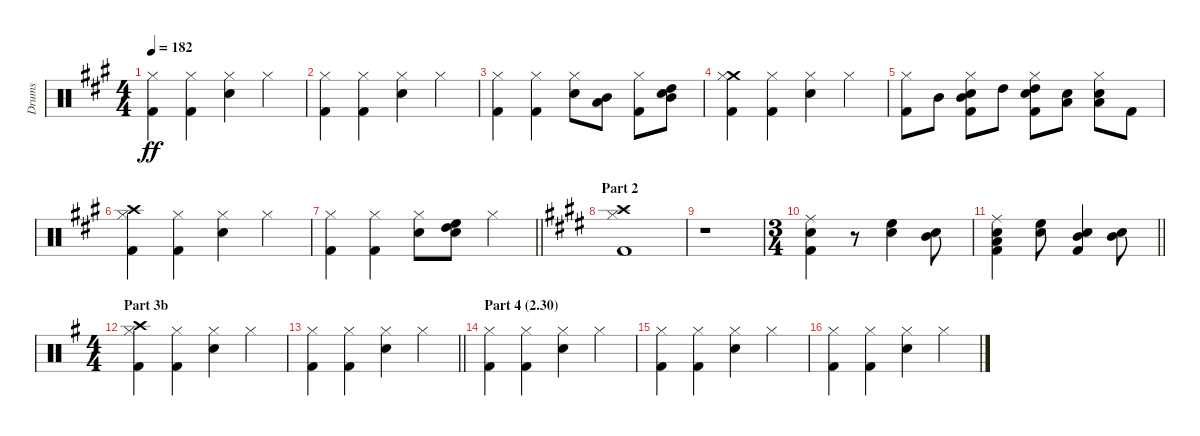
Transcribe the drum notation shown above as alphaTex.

\track ("Drums" "Drums") {instrument percussion}
\staff {score}
\articulation defaults
\ts (4 4)
\tempo 182
\clef neutral
\ks a
("Hi-Hat (closed)" "Kick (hit) 2").4{dy ff} ("Hi-Hat (closed)" "Kick (hit) 2").4 ("Hi-Hat (closed)" "Electric Snare (hit)").4 "Hi-Hat (closed)".4 |
("Hi-Hat (closed)" "Kick (hit) 2").4 ("Hi-Hat (closed)" "Kick (hit) 2").4 ("Electric Snare (hit)" "Hi-Hat (closed)").4 "Hi-Hat (closed)".4 |
("Kick (hit) 2" "Hi-Hat (closed)").4 ("Kick (hit) 2" "Hi-Hat (closed)").4 ("Electric Snare (hit)" "Hi-Hat (closed)").8 ("Low Tom (hit)" "Mid Tom (hit)").8 ("Kick (hit) 2" "Hi-Hat (closed)").8 ("Electric Snare (hit)" "High Tom (hit)" "Mid Tom (hit)").8 |
("Crash medium (hit)" "Hi-Hat (closed)" "Kick (hit) 2").4 ("Hi-Hat (closed)" "Kick (hit) 2").4 ("Hi-Hat (closed)" "Electric Snare (hit)").4 "Hi-Hat (closed)".4 |
("Hi-Hat (closed)" "Kick (hit) 2").8 "Mid Tom (hit)".8 ("Snare (hit) 2" "Mid Tom (hit)" "Hi-Hat (closed)" "Kick (hit) 2").8 "High Tom (hit)".8 ("High Tom (hit)" "Kick (hit) 2" "Hi-Hat (closed)" "Electric Snare (hit)").8 ("Electric Snare (hit)" "Low Tom (hit)").8 ("Snare (hit) 2" "Low Tom (hit)" "Hi-Hat (closed)").8 "Kick (hit) 2".8 |
("Crash high (hit)" "Hi-Hat (closed)" "Kick (hit) 2").4 ("Hi-Hat (closed)" "Kick (hit) 2").4 ("Electric Snare (hit)" "Hi-Hat (closed)").4 "Hi-Hat (closed)".4 |
\barLineRight lightlight
("Kick (hit) 2" "Hi-Hat (closed)").4 ("Kick (hit) 2" "Hi-Hat (closed)").4 ("Electric Snare (hit)" "Hi-Hat (closed)").8 ("High Floor Tom (hit)" "Snare (hit) 2" "High Tom (hit)").8 "Hi-Hat (closed)".4 |
\section ("" "Part 2")
\ks e
("Crash high (hit)" "Hi-Hat (closed)" "Kick (hit) 2").1 |
r.1 |
\ts (3 4)
("Kick (hit) 2" "Electric Snare (hit)" "Ride (middle)").4 r.8 ("High Floor Tom (hit)" "Electric Snare (hit)").4 ("Mid Tom (hit)" "Electric Snare (hit)").8 |
\barLineRight lightlight
("Low Tom (hit)" "Ride (middle)" "Electric Snare (hit)" "Kick (hit) 2").4 ("High Floor Tom (hit)" "Electric Snare (hit)").8 ("Mid Tom (hit)" "Kick (hit) 2" "Electric Snare (hit)").4 ("Mid Tom (hit)" "Electric Snare (hit)").8 |
\ts (4 4)
\section ("" "Part 3b")
\ks g
("Crash high (hit)" "Hi-Hat (closed)" "Kick (hit) 2").4 ("Hi-Hat (closed)" "Kick (hit) 2").4 ("Electric Snare (hit)" "Hi-Hat (closed)").4 "Hi-Hat (closed)".4 |
\barLineRight lightlight
("Kick (hit) 2" "Hi-Hat (closed)").4 ("Kick (hit) 2" "Hi-Hat (closed)").4 ("Electric Snare (hit)" "Hi-Hat (closed)").4 "Hi-Hat (closed)".4 |
\section ("" "Part 4 (2.30)")
("Hi-Hat (closed)" "Kick (hit) 2").4 ("Hi-Hat (closed)" "Kick (hit) 2").4 ("Hi-Hat (closed)" "Electric Snare (hit)").4 "Hi-Hat (closed)".4 |
("Hi-Hat (closed)" "Kick (hit) 2").4 ("Hi-Hat (closed)" "Kick (hit) 2").4 ("Hi-Hat (closed)" "Electric Snare (hit)").4 "Hi-Hat (closed)".4 |
("Hi-Hat (closed)" "Kick (hit) 2").4 ("Hi-Hat (closed)" "Kick (hit) 2").4 ("Electric Snare (hit)" "Hi-Hat (closed)").4 "Hi-Hat (closed)".4
